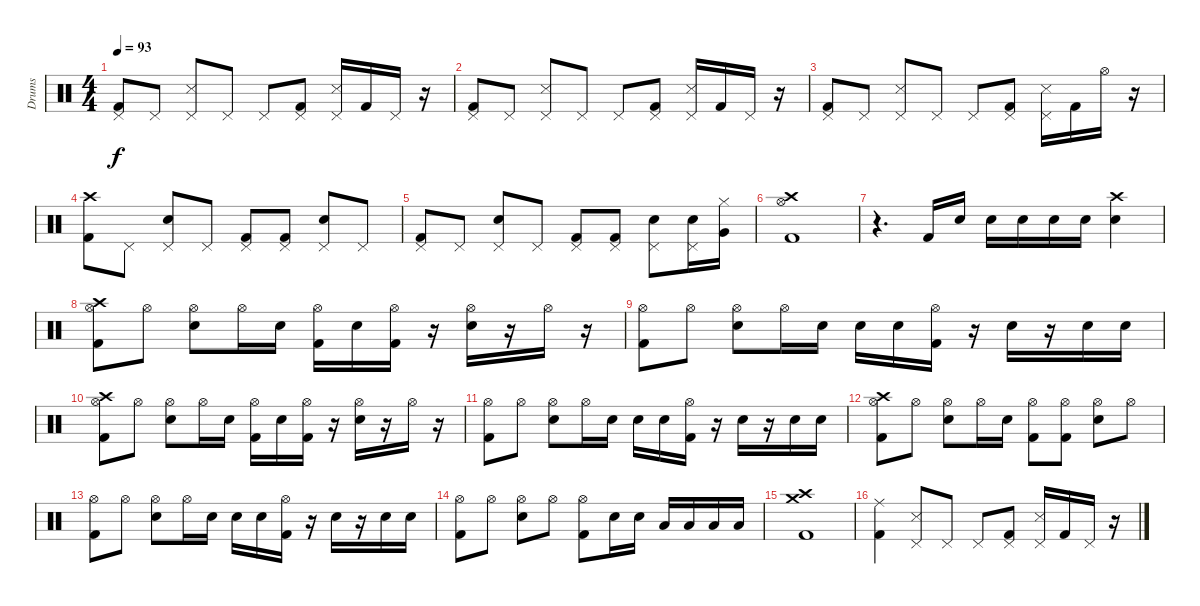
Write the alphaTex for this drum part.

\track ("Drums" "Drums") {instrument percussion}
\staff {score}
\articulation defaults
\ts (4 4)
\tempo 93
\clef neutral
\ks c
("Pedal Hi-Hat (hit)" "Kick (hit) 2").8{dy f} "Pedal Hi-Hat (hit)".8 ("Pedal Hi-Hat (hit)" "Snare (side stick) 3").8 "Pedal Hi-Hat (hit)".8 "Pedal Hi-Hat (hit)".8 ("Pedal Hi-Hat (hit)" "Kick (hit) 2").8 ("Pedal Hi-Hat (hit)" "Snare (side stick) 3").16 "Kick (hit) 2".16 "Pedal Hi-Hat (hit)".16 r.16 |
("Pedal Hi-Hat (hit)" "Kick (hit) 2").8 "Pedal Hi-Hat (hit)".8 ("Pedal Hi-Hat (hit)" "Snare (side stick) 3").8 "Pedal Hi-Hat (hit)".8 "Pedal Hi-Hat (hit)".8 ("Pedal Hi-Hat (hit)" "Kick (hit) 2").8 ("Pedal Hi-Hat (hit)" "Snare (side stick) 3").16 "Kick (hit) 2".16 "Pedal Hi-Hat (hit)".16 r.16 |
("Pedal Hi-Hat (hit)" "Kick (hit) 2").8 "Pedal Hi-Hat (hit)".8 ("Pedal Hi-Hat (hit)" "Snare (side stick) 3").8 "Pedal Hi-Hat (hit)".8 "Pedal Hi-Hat (hit)".8 ("Pedal Hi-Hat (hit)" "Kick (hit) 2").8 ("Pedal Hi-Hat (hit)" "Snare (side stick) 3").16 "Kick (hit) 2".16 "Hi-Hat (open)".16 r.16 |
("Crash high (hit)" "Kick (hit) 2").8 "Pedal Hi-Hat (hit)".8 ("Pedal Hi-Hat (hit)" "Electric Snare (hit)").8 "Pedal Hi-Hat (hit)".8 ("Pedal Hi-Hat (hit)" "Kick (hit) 2").8 ("Pedal Hi-Hat (hit)" "Kick (hit) 2").8 ("Pedal Hi-Hat (hit)" "Electric Snare (hit)").8 "Pedal Hi-Hat (hit)".8 |
("Pedal Hi-Hat (hit)" "Kick (hit) 2").8 "Pedal Hi-Hat (hit)".8 ("Pedal Hi-Hat (hit)" "Electric Snare (hit)").8 "Pedal Hi-Hat (hit)".8 ("Pedal Hi-Hat (hit)" "Kick (hit) 2").8 ("Pedal Hi-Hat (hit)" "Kick (hit) 2").8 ("Pedal Hi-Hat (hit)" "Electric Snare (hit)").8 ("Pedal Hi-Hat (hit)" "Electric Snare (hit)").16 ("Hi-Hat (closed)" "Very Low Tom (hit)").16 |
("Crash high (hit)" "Hi-Hat (open)" "Kick (hit) 2").1 |
r.4{d} "Kick (hit) 2".16 "Electric Snare (hit)".16 "Electric Snare (hit)".16 "Electric Snare (hit)".16 "Electric Snare (hit)".16 "Electric Snare (hit)".16 ("Crash high (hit)" "Electric Snare (hit)").4 |
("Crash high (hit)" "Hi-Hat (open)" "Kick (hit) 2").8 "Hi-Hat (open)".8 ("Hi-Hat (open)" "Electric Snare (hit)").8 "Hi-Hat (open)".16 "Electric Snare (hit)".16 ("Hi-Hat (open)" "Kick (hit) 2").16 "Electric Snare (hit)".16 ("Hi-Hat (open)" "Kick (hit) 2").16 r.16 ("Hi-Hat (open)" "Electric Snare (hit)").16 r.16 "Hi-Hat (open)".16 r.16 |
("Hi-Hat (open)" "Kick (hit) 2").8 "Hi-Hat (open)".8 ("Hi-Hat (open)" "Electric Snare (hit)").8 "Hi-Hat (open)".16 "Electric Snare (hit)".16 "Electric Snare (hit)".16 "Electric Snare (hit)".16 ("Hi-Hat (open)" "Kick (hit) 2").16 r.16 "Electric Snare (hit)".16 r.16 "Electric Snare (hit)".16 "Electric Snare (hit)".16 |
("Crash high (hit)" "Hi-Hat (open)" "Kick (hit) 2").8 "Hi-Hat (open)".8 ("Hi-Hat (open)" "Electric Snare (hit)").8 "Hi-Hat (open)".16 "Electric Snare (hit)".16 ("Hi-Hat (open)" "Kick (hit) 2").16 "Electric Snare (hit)".16 ("Hi-Hat (open)" "Kick (hit) 2").16 r.16 ("Hi-Hat (open)" "Electric Snare (hit)").16 r.16 "Hi-Hat (open)".16 r.16 |
("Hi-Hat (open)" "Kick (hit) 2").8 "Hi-Hat (open)".8 ("Hi-Hat (open)" "Electric Snare (hit)").8 "Hi-Hat (open)".16 "Electric Snare (hit)".16 "Electric Snare (hit)".16 "Electric Snare (hit)".16 ("Hi-Hat (open)" "Kick (hit) 2").16 r.16 "Electric Snare (hit)".16 r.16 "Electric Snare (hit)".16 "Electric Snare (hit)".16 |
("Crash high (hit)" "Hi-Hat (open)" "Kick (hit) 2").8 "Hi-Hat (open)".8 ("Hi-Hat (open)" "Electric Snare (hit)").8 "Hi-Hat (open)".16 "Electric Snare (hit)".16 ("Hi-Hat (open)" "Kick (hit) 2").8 ("Hi-Hat (open)" "Kick (hit) 2").8 ("Hi-Hat (open)" "Electric Snare (hit)").8 "Hi-Hat (open)".8 |
("Hi-Hat (open)" "Kick (hit) 2").8 "Hi-Hat (open)".8 ("Hi-Hat (open)" "Electric Snare (hit)").8 "Hi-Hat (open)".16 "Electric Snare (hit)".16 "Electric Snare (hit)".16 "Electric Snare (hit)".16 ("Hi-Hat (open)" "Kick (hit) 2").16 r.16 "Electric Snare (hit)".16 r.16 "Electric Snare (hit)".16 "Electric Snare (hit)".16 |
("Hi-Hat (open)" "Kick (hit) 2").8 "Hi-Hat (open)".8 ("Hi-Hat (open)" "Electric Snare (hit)").8 "Hi-Hat (open)".8 ("Hi-Hat (open)" "Kick (hit) 2").8 "Electric Snare (hit)".16 "Electric Snare (hit)".16 "Low Tom (hit)".16 "Low Tom (hit)".16 "Low Floor Tom (hit)".16 "Low Floor Tom (hit)".16 |
("Crash medium (hit)" "Crash high (hit)" "Kick (hit) 2").1 |
("Ride (middle)" "Kick (hit) 2").4 ("Pedal Hi-Hat (hit)" "Snare (side stick) 3").8 "Pedal Hi-Hat (hit)".8 "Pedal Hi-Hat (hit)".8 ("Pedal Hi-Hat (hit)" "Kick (hit) 2").8 ("Pedal Hi-Hat (hit)" "Snare (side stick) 3").16 "Kick (hit) 2".16 "Pedal Hi-Hat (hit)".16 r.16
